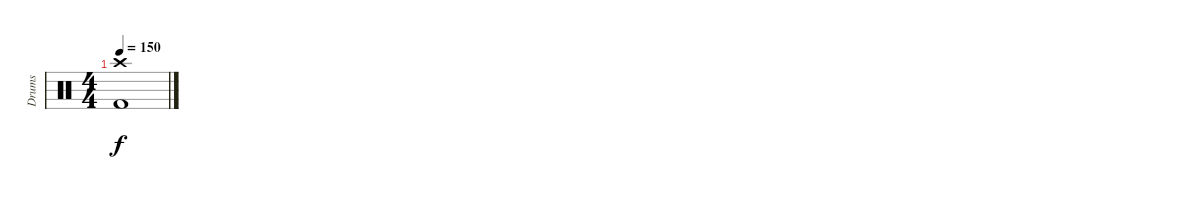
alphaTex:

\track ("Drums" "Drums") {instrument percussion}
\staff {score}
\articulation defaults
\ts (4 4)
\tempo 150
\clef neutral
\ks c
("Crash high (hit)" "Kick (hit) 2").1{dy f}
